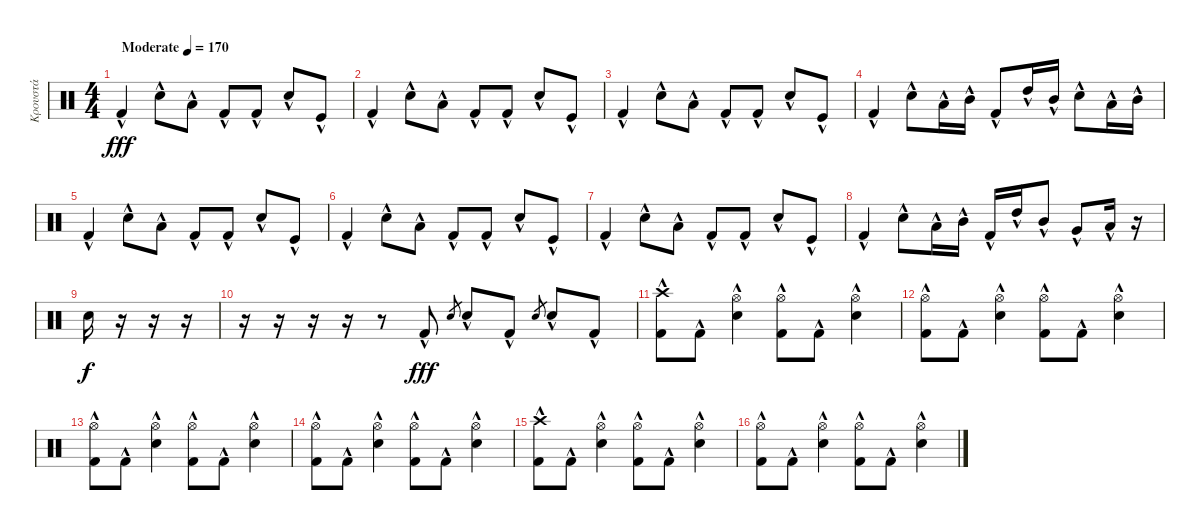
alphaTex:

\track ("Κρουστά" "Κρουστά") {instrument percussion}
\staff {score}
\articulation defaults
\ts (4 4)
\tempo (170 "Moderate")
\clef neutral
\ks c "Kick (hit) 2"{hac}.4{dy fff} "Electric Snare (hit)"{hac}.8 "Low Tom (hit)"{hac}.8 "Kick (hit) 2"{hac}.8 "Kick (hit) 2"{hac}.8 "Electric Snare (hit)"{hac}.8 "Kick (hit)"{hac}.8
|
"Kick (hit) 2"{hac}.4 "Electric Snare (hit)"{hac}.8 "Low Tom (hit)"{hac}.8 "Kick (hit) 2"{hac}.8 "Kick (hit) 2"{hac}.8 "Electric Snare (hit)"{hac}.8 "Kick (hit)"{hac}.8 |
"Kick (hit) 2"{hac}.4 "Electric Snare (hit)"{hac}.8 "Low Tom (hit)"{hac}.8 "Kick (hit) 2"{hac}.8 "Kick (hit) 2"{hac}.8 "Electric Snare (hit)"{hac}.8 "Kick (hit)"{hac}.8 |
"Kick (hit) 2"{hac}.4 "Electric Snare (hit)"{hac}.8 "Low Tom (hit)"{hac}.16 "Mid Tom (hit)"{hac}.16 "Kick (hit) 2"{hac}.8 "High Tom (hit)"{hac}.16 "Mid Tom (hit)"{hac}.16 "Electric Snare (hit)"{hac}.8 "Low Tom (hit)"{hac}.16 "Mid Tom (hit)"{hac}.16 |
"Kick (hit) 2"{hac}.4 "Electric Snare (hit)"{hac}.8 "Low Tom (hit)"{hac}.8 "Kick (hit) 2"{hac}.8 "Kick (hit) 2"{hac}.8 "Electric Snare (hit)"{hac}.8 "Kick (hit)"{hac}.8 |
"Kick (hit) 2"{hac}.4 "Electric Snare (hit)"{hac}.8 "Low Tom (hit)"{hac}.8 "Kick (hit) 2"{hac}.8 "Kick (hit) 2"{hac}.8 "Electric Snare (hit)"{hac}.8 "Kick (hit)"{hac}.8 |
"Kick (hit) 2"{hac}.4 "Electric Snare (hit)"{hac}.8 "Low Tom (hit)"{hac}.8 "Kick (hit) 2"{hac}.8 "Kick (hit) 2"{hac}.8 "Electric Snare (hit)"{hac}.8 "Kick (hit)"{hac}.8 |
"Kick (hit) 2"{hac}.4 "Electric Snare (hit)"{hac}.8 "Low Tom (hit)"{hac}.16 "Mid Tom (hit)"{hac}.16 "Kick (hit) 2"{hac}.16 "High Tom (hit)"{hac}.16 "Mid Tom (hit)"{hac}.8 "Very Low Tom (hit)"{hac}.8 "Low Tom (hit)"{hac}.16 r.16 |
"Electric Snare (hit)".16{dy f} r.16 r.16 r.16 |
r.16 r.16 r.16 r.16 r.8 "Kick (hit) 2"{hac}.8{dy fff} "Electric Snare (hit)".8{gr} "Electric Snare (hit)"{hac}.8 "Kick (hit) 2"{hac}.8 "Electric Snare (hit)".8{gr} "Electric Snare (hit)"{hac}.8 "Kick (hit) 2"{hac}.8 |
("Kick (hit) 2"{hac} "Crash high (hit)").8 "Kick (hit) 2"{hac}.8 ("Electric Snare (hit)"{hac} "Hi-Hat (open)").4 ("Kick (hit) 2"{hac} "Hi-Hat (open)").8 "Kick (hit) 2"{hac}.8 ("Electric Snare (hit)"{hac} "Hi-Hat (open)").4 |
("Kick (hit) 2"{hac} "Hi-Hat (open)").8 "Kick (hit) 2"{hac}.8 ("Electric Snare (hit)"{hac} "Hi-Hat (open)").4 ("Kick (hit) 2"{hac} "Hi-Hat (open)").8 "Kick (hit) 2"{hac}.8 ("Electric Snare (hit)"{hac} "Hi-Hat (open)").4 |
("Kick (hit) 2"{hac} "Hi-Hat (open)").8 "Kick (hit) 2"{hac}.8 ("Electric Snare (hit)"{hac} "Hi-Hat (open)").4 ("Kick (hit) 2"{hac} "Hi-Hat (open)").8 "Kick (hit) 2"{hac}.8 ("Electric Snare (hit)"{hac} "Hi-Hat (open)").4 |
("Kick (hit) 2"{hac} "Hi-Hat (open)").8 "Kick (hit) 2"{hac}.8 ("Electric Snare (hit)"{hac} "Hi-Hat (open)").4 ("Kick (hit) 2"{hac} "Hi-Hat (open)").8 "Kick (hit) 2"{hac}.8 ("Electric Snare (hit)"{hac} "Hi-Hat (open)").4 |
("Kick (hit) 2"{hac} "Crash high (hit)").8 "Kick (hit) 2"{hac}.8 ("Electric Snare (hit)"{hac} "Hi-Hat (open)").4 ("Kick (hit) 2"{hac} "Hi-Hat (open)").8 "Kick (hit) 2"{hac}.8 ("Electric Snare (hit)"{hac} "Hi-Hat (open)").4 |
("Kick (hit) 2"{hac} "Hi-Hat (open)").8 "Kick (hit) 2"{hac}.8 ("Electric Snare (hit)"{hac} "Hi-Hat (open)").4 ("Kick (hit) 2"{hac} "Hi-Hat (open)").8 "Kick (hit) 2"{hac}.8 ("Electric Snare (hit)"{hac} "Hi-Hat (open)").4
